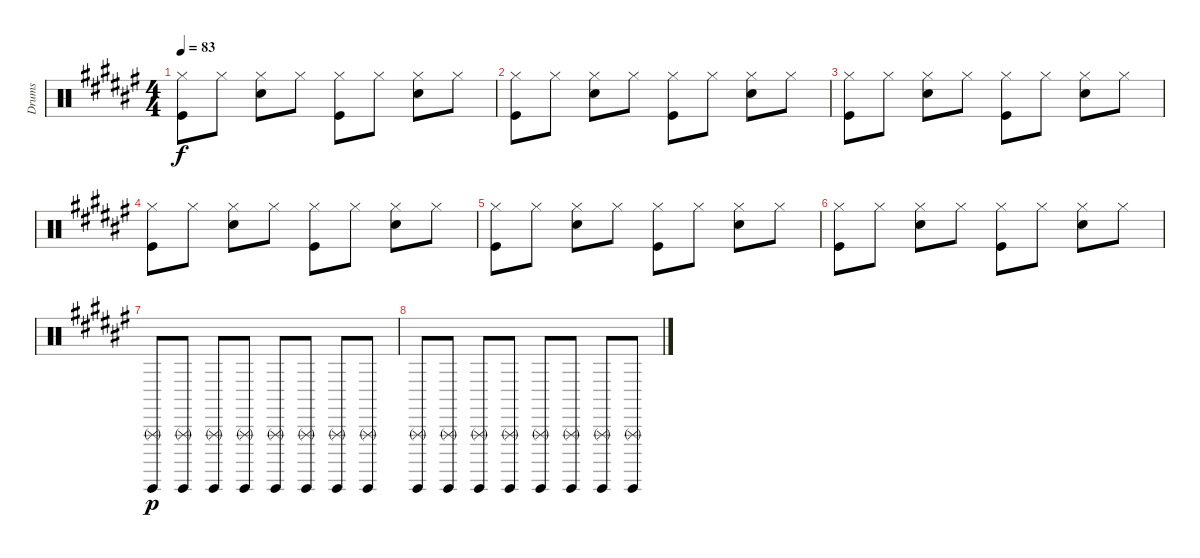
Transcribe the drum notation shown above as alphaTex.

\track ("Drums" "Drums") {instrument percussion}
\staff {score}
\articulation defaults
\ts (4 4)
\tempo 83
\clef neutral
\ks d#minor
("Hi-Hat (closed)" "Kick (hit)").8{dy f} "Hi-Hat (closed)".8 ("Hi-Hat (closed)" "Snare (hit) 2").8 "Hi-Hat (closed)".8 ("Hi-Hat (closed)" "Kick (hit)").8 "Hi-Hat (closed)".8 ("Hi-Hat (closed)" "Snare (hit) 2").8 "Hi-Hat (closed)".8 |
("Hi-Hat (closed)" "Kick (hit)").8 "Hi-Hat (closed)".8 ("Hi-Hat (closed)" "Snare (hit) 2").8 "Hi-Hat (closed)".8 ("Hi-Hat (closed)" "Kick (hit)").8 "Hi-Hat (closed)".8 ("Hi-Hat (closed)" "Snare (hit) 2").8 "Hi-Hat (closed)".8 |
("Hi-Hat (closed)" "Kick (hit)").8 "Hi-Hat (closed)".8 ("Hi-Hat (closed)" "Snare (hit) 2").8 "Hi-Hat (closed)".8 ("Hi-Hat (closed)" "Kick (hit)").8 "Hi-Hat (closed)".8 ("Hi-Hat (closed)" "Snare (hit) 2").8 "Hi-Hat (closed)".8 |
("Hi-Hat (closed)" "Kick (hit)").8 "Hi-Hat (closed)".8 ("Hi-Hat (closed)" "Snare (hit) 2").8 "Hi-Hat (closed)".8 ("Hi-Hat (closed)" "Kick (hit)").8 "Hi-Hat (closed)".8 ("Hi-Hat (closed)" "Snare (hit) 2").8 "Hi-Hat (closed)".8 |
("Hi-Hat (closed)" "Kick (hit)").8 "Hi-Hat (closed)".8 ("Hi-Hat (closed)" "Snare (hit) 2").8 "Hi-Hat (closed)".8 ("Hi-Hat (closed)" "Kick (hit)").8 "Hi-Hat (closed)".8 ("Hi-Hat (closed)" "Snare (hit) 2").8 "Hi-Hat (closed)".8 |
("Hi-Hat (closed)" "Kick (hit)").8 "Hi-Hat (closed)".8 ("Hi-Hat (closed)" "Snare (hit) 2").8 "Hi-Hat (closed)".8 ("Hi-Hat (closed)" "Kick (hit)").8 "Hi-Hat (closed)".8 ("Hi-Hat (closed)" "Snare (hit) 2").8 "Hi-Hat (closed)".8 |
("Guiro (hit)" "Triangle (rnute)").8{dy p} ("Guiro (hit)" "Triangle (rnute)").8 ("Guiro (hit)" "Triangle (rnute)").8 ("Guiro (hit)" "Triangle (rnute)").8 ("Guiro (hit)" "Triangle (rnute)").8 ("Guiro (hit)" "Triangle (rnute)").8 ("Guiro (hit)" "Triangle (rnute)").8 ("Guiro (hit)" "Triangle (rnute)").8 |
("Guiro (hit)" "Triangle (rnute)").8 ("Guiro (hit)" "Triangle (rnute)").8 ("Guiro (hit)" "Triangle (rnute)").8 ("Guiro (hit)" "Triangle (rnute)").8 ("Guiro (hit)" "Triangle (rnute)").8 ("Guiro (hit)" "Triangle (rnute)").8 ("Guiro (hit)" "Triangle (rnute)").8 ("Guiro (hit)" "Triangle (rnute)").8
